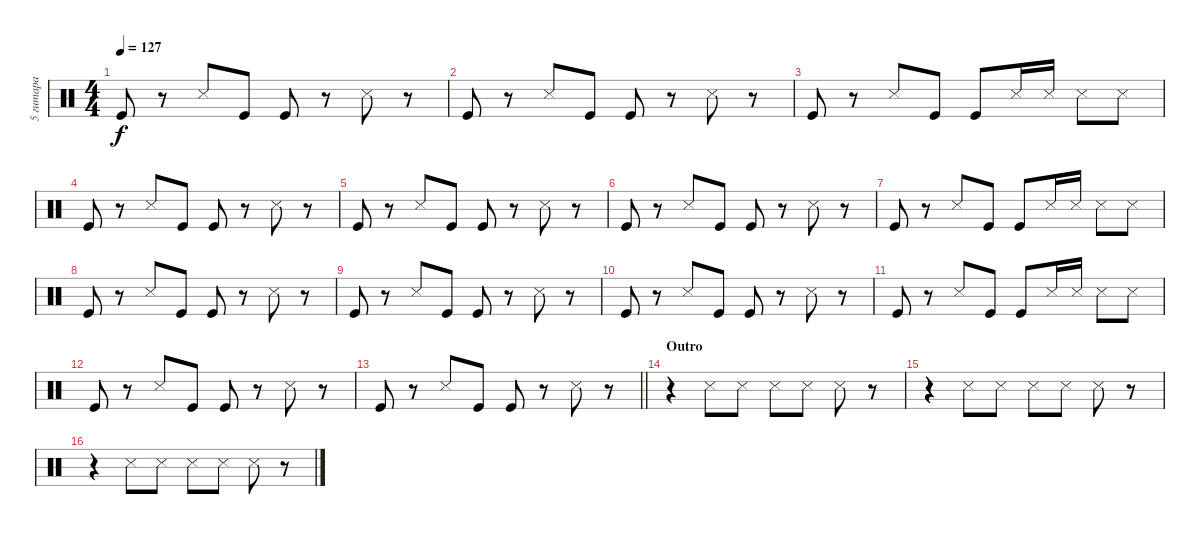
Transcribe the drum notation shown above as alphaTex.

\track ("5 гитара" "5 гитара") {instrument percussion}
\staff {score}
\articulation defaults
\ts (4 4)
\tempo 127
\clef neutral
\ks c "Kick (hit)".8{dy f}
r.8 "Snare (side stick) 3".8 "Kick (hit)".8 "Kick (hit)".8 r.8 "Snare (side stick) 3".8 r.8 |
"Kick (hit)".8 r.8 "Snare (side stick) 3".8 "Kick (hit)".8 "Kick (hit)".8 r.8 "Snare (side stick) 3".8 r.8 |
"Kick (hit)".8 r.8 "Snare (side stick) 3".8 "Kick (hit)".8 "Kick (hit)".8 "Snare (side stick) 3".16 "Snare (side stick) 3".16 "Snare (side stick) 3".8 "Snare (side stick) 3".8 |
"Kick (hit)".8 r.8 "Snare (side stick) 3".8 "Kick (hit)".8 "Kick (hit)".8 r.8 "Snare (side stick) 3".8 r.8 |
"Kick (hit)".8 r.8 "Snare (side stick) 3".8 "Kick (hit)".8 "Kick (hit)".8 r.8 "Snare (side stick) 3".8 r.8 |
"Kick (hit)".8 r.8 "Snare (side stick) 3".8 "Kick (hit)".8 "Kick (hit)".8 r.8 "Snare (side stick) 3".8 r.8 |
"Kick (hit)".8 r.8 "Snare (side stick) 3".8 "Kick (hit)".8 "Kick (hit)".8 "Snare (side stick) 3".16 "Snare (side stick) 3".16 "Snare (side stick) 3".8 "Snare (side stick) 3".8 |
"Kick (hit)".8 r.8 "Snare (side stick) 3".8 "Kick (hit)".8 "Kick (hit)".8 r.8 "Snare (side stick) 3".8 r.8 |
"Kick (hit)".8 r.8 "Snare (side stick) 3".8 "Kick (hit)".8 "Kick (hit)".8 r.8 "Snare (side stick) 3".8 r.8 |
"Kick (hit)".8 r.8 "Snare (side stick) 3".8 "Kick (hit)".8 "Kick (hit)".8 r.8 "Snare (side stick) 3".8 r.8 |
"Kick (hit)".8 r.8 "Snare (side stick) 3".8 "Kick (hit)".8 "Kick (hit)".8 "Snare (side stick) 3".16 "Snare (side stick) 3".16 "Snare (side stick) 3".8 "Snare (side stick) 3".8 |
"Kick (hit)".8 r.8 "Snare (side stick) 3".8 "Kick (hit)".8 "Kick (hit)".8 r.8 "Snare (side stick) 3".8 r.8 |
\barLineRight lightlight "Kick (hit)".8
r.8 "Snare (side stick) 3".8 "Kick (hit)".8 "Kick (hit)".8 r.8 "Snare (side stick) 3".8 r.8 |
\section ("" "Outro")
r.4 "Snare (side stick) 3".8 "Snare (side stick) 3".8 "Snare (side stick) 3".8 "Snare (side stick) 3".8 "Snare (side stick) 3".8 r.8 |
r.4 "Snare (side stick) 3".8 "Snare (side stick) 3".8 "Snare (side stick) 3".8 "Snare (side stick) 3".8 "Snare (side stick) 3".8 r.8 |
r.4 "Snare (side stick) 3".8 "Snare (side stick) 3".8 "Snare (side stick) 3".8 "Snare (side stick) 3".8 "Snare (side stick) 3".8 r.8
